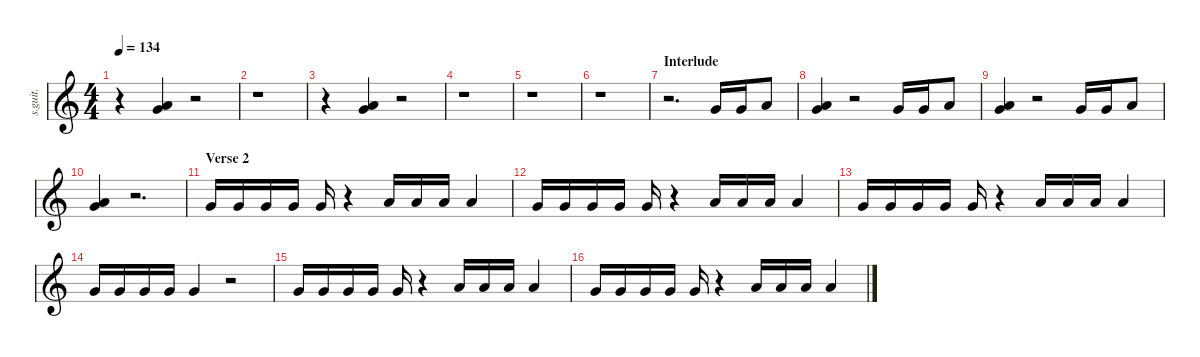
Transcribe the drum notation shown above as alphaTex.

\defaultSystemsLayout 4
\hideDynamics
\bracketExtendMode nobrackets
\track ("Chris Fehn" "s.guit.") {instrument percussion}
\staff {score}
\articulation defaults
\ts (4 4)
\tempo 134
\clef g2
\ks c
r.4{dy f} ("Very Low Tom (hit)" "Low Floor Tom (hit)").4 r.2 |
r.1 |
r.4 ("Very Low Tom (hit)" "Low Floor Tom (hit)").4 r.2 |
r.1 |
r.1 |
r.1 |
\section ("" "Interlude")
r.2{d} "Very Low Tom (hit)".16 "Very Low Tom (hit)".16 "Low Floor Tom (hit)".8 |
("Very Low Tom (hit)" "Low Floor Tom (hit)").4 r.2 "Very Low Tom (hit)".16 "Very Low Tom (hit)".16 "Low Floor Tom (hit)".8 |
("Very Low Tom (hit)" "Low Floor Tom (hit)").4 r.2 "Very Low Tom (hit)".16 "Very Low Tom (hit)".16 "Low Floor Tom (hit)".8 |
("Very Low Tom (hit)" "Low Floor Tom (hit)").4 r.2{d} |
\section ("" "Verse 2")
"Very Low Tom (hit)".16 "Very Low Tom (hit)".16 "Very Low Tom (hit)".16 "Very Low Tom (hit)".16 "Very Low Tom (hit)".16 r.4 "Low Floor Tom (hit)".16 "Low Floor Tom (hit)".16 "Low Floor Tom (hit)".16 "Low Floor Tom (hit)".4 |
"Very Low Tom (hit)".16 "Very Low Tom (hit)".16 "Very Low Tom (hit)".16 "Very Low Tom (hit)".16 "Very Low Tom (hit)".16 r.4 "Low Floor Tom (hit)".16 "Low Floor Tom (hit)".16 "Low Floor Tom (hit)".16 "Low Floor Tom (hit)".4 |
"Very Low Tom (hit)".16 "Very Low Tom (hit)".16 "Very Low Tom (hit)".16 "Very Low Tom (hit)".16 "Very Low Tom (hit)".16 r.4 "Low Floor Tom (hit)".16 "Low Floor Tom (hit)".16 "Low Floor Tom (hit)".16 "Low Floor Tom (hit)".4 |
"Very Low Tom (hit)".16 "Very Low Tom (hit)".16 "Very Low Tom (hit)".16 "Very Low Tom (hit)".16 "Very Low Tom (hit)".4 r.2 |
"Very Low Tom (hit)".16 "Very Low Tom (hit)".16 "Very Low Tom (hit)".16 "Very Low Tom (hit)".16 "Very Low Tom (hit)".16 r.4 "Low Floor Tom (hit)".16 "Low Floor Tom (hit)".16 "Low Floor Tom (hit)".16 "Low Floor Tom (hit)".4 |
"Very Low Tom (hit)".16 "Very Low Tom (hit)".16 "Very Low Tom (hit)".16 "Very Low Tom (hit)".16 "Very Low Tom (hit)".16 r.4 "Low Floor Tom (hit)".16 "Low Floor Tom (hit)".16 "Low Floor Tom (hit)".16 "Low Floor Tom (hit)".4
